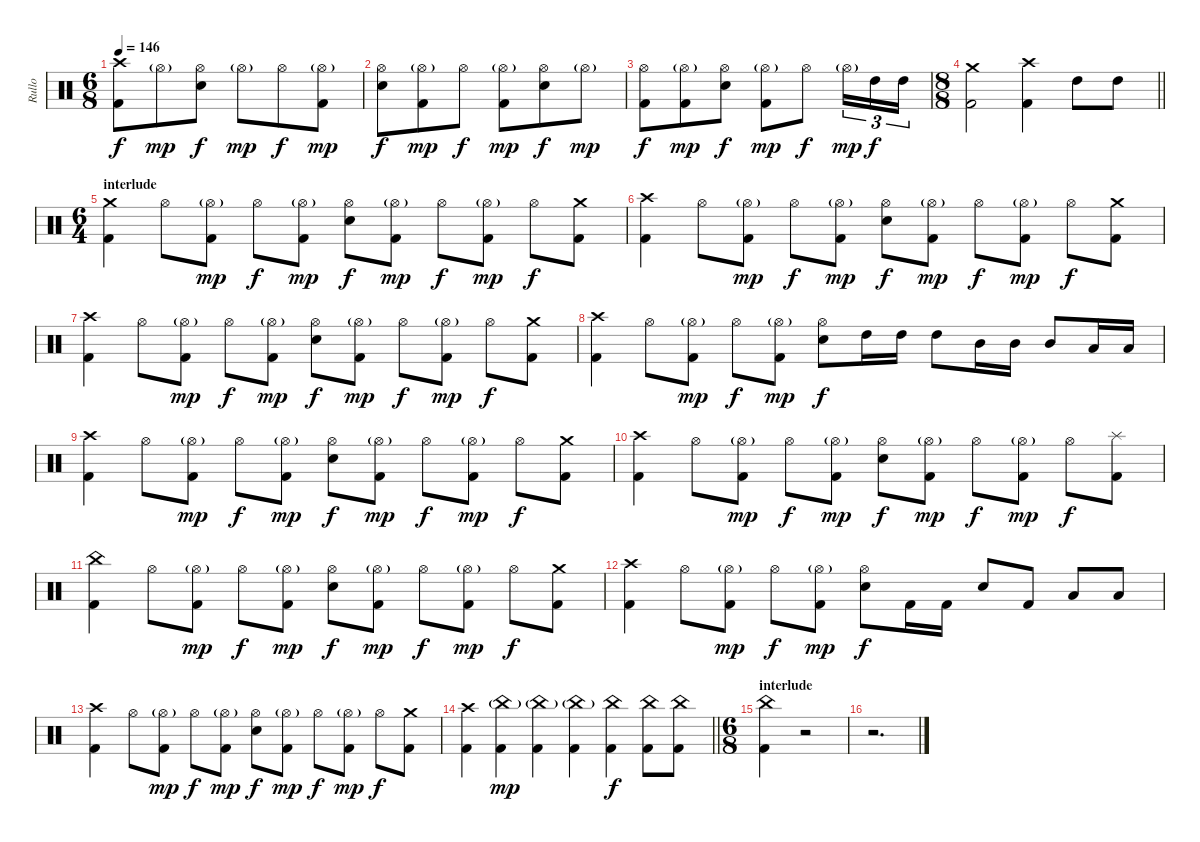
\track ("Rullo" "Rullo") {instrument percussion}
\staff {score}
\articulation defaults
\ts (6 8)
\tempo 146
\clef neutral
\ks c
("Crash high (hit)" "Kick (hit) 2").8{dy f} "Hi-Hat (open)"{g}.8{dy mp} ("Hi-Hat (open)" "Electric Snare (hit)").8{dy f} "Hi-Hat (open)"{g}.8{dy mp} "Hi-Hat (open)".8{dy f} ("Hi-Hat (open)"{g} "Kick (hit) 2").8{dy mp} |
("Hi-Hat (open)" "Electric Snare (hit)").8{dy f} ("Hi-Hat (open)"{g} "Kick (hit) 2").8{dy mp} "Hi-Hat (open)".8{dy f} ("Hi-Hat (open)"{g} "Kick (hit) 2").8{dy mp} ("Hi-Hat (open)" "Electric Snare (hit)").8{dy f} "Hi-Hat (open)"{g}.8{dy mp} |
("Hi-Hat (open)" "Kick (hit) 2").8{dy f} ("Hi-Hat (open)"{g} "Kick (hit) 2").8{dy mp} ("Hi-Hat (open)" "Electric Snare (hit)").8{dy f} ("Hi-Hat (open)"{g} "Kick (hit) 2").8{dy mp} "Hi-Hat (open)".8{dy f} "Hi-Hat (open)"{g}.16{tu (3 2) dy mp} "High Tom (hit)".16{tu (3 2) dy f} "High Tom (hit)".16{tu (3 2)} |
\ts (8 8)
\barLineRight lightlight
("Crash medium (hit)" "Kick (hit) 2").2 ("Crash high (hit)" "Kick (hit) 2").4 "High Tom (hit)".8 "High Tom (hit)".8 |
\ts (6 4)
\section ("" "interlude")
("Crash medium (hit)" "Kick (hit) 2").4 "Hi-Hat (open)".8 ("Hi-Hat (open)"{g} "Kick (hit) 2").8{dy mp} "Hi-Hat (open)".8{dy f} ("Hi-Hat (open)"{g} "Kick (hit) 2").8{dy mp} ("Hi-Hat (open)" "Electric Snare (hit)").8{dy f} ("Hi-Hat (open)"{g} "Kick (hit) 2").8{dy mp} "Hi-Hat (open)".8{dy f} ("Hi-Hat (open)"{g} "Kick (hit) 2").8{dy mp} "Hi-Hat (open)".8{dy f} ("Crash medium (hit)" "Kick (hit) 2").8 |
("Crash high (hit)" "Kick (hit) 2").4 "Hi-Hat (open)".8 ("Hi-Hat (open)"{g} "Kick (hit) 2").8{dy mp} "Hi-Hat (open)".8{dy f} ("Hi-Hat (open)"{g} "Kick (hit) 2").8{dy mp} ("Hi-Hat (open)" "Electric Snare (hit)").8{dy f} ("Hi-Hat (open)"{g} "Kick (hit) 2").8{dy mp} "Hi-Hat (open)".8{dy f} ("Hi-Hat (open)"{g} "Kick (hit) 2").8{dy mp} "Hi-Hat (open)".8{dy f} ("Crash medium (hit)" "Kick (hit) 2").8 |
("Crash high (hit)" "Kick (hit) 2").4 "Hi-Hat (open)".8 ("Hi-Hat (open)"{g} "Kick (hit) 2").8{dy mp} "Hi-Hat (open)".8{dy f} ("Hi-Hat (open)"{g} "Kick (hit) 2").8{dy mp} ("Hi-Hat (open)" "Electric Snare (hit)").8{dy f} ("Hi-Hat (open)"{g} "Kick (hit) 2").8{dy mp} "Hi-Hat (open)".8{dy f} ("Hi-Hat (open)"{g} "Kick (hit) 2").8{dy mp} "Hi-Hat (open)".8{dy f} ("Crash medium (hit)" "Kick (hit) 2").8 |
("Crash high (hit)" "Kick (hit) 2").4 "Hi-Hat (open)".8 ("Hi-Hat (open)"{g} "Kick (hit) 2").8{dy mp} "Hi-Hat (open)".8{dy f} ("Hi-Hat (open)"{g} "Kick (hit) 2").8{dy mp} ("Hi-Hat (open)" "Electric Snare (hit)").8{dy f} "High Tom (hit)".16 "High Tom (hit)".16 "High Tom (hit)".8 "Mid Tom (hit)".16 "Mid Tom (hit)".16 "Mid Tom (hit)".8 "Low Tom (hit)".16 "Low Tom (hit)".16 |
("Crash high (hit)" "Kick (hit) 2").4 "Hi-Hat (open)".8 ("Hi-Hat (open)"{g} "Kick (hit) 2").8{dy mp} "Hi-Hat (open)".8{dy f} ("Hi-Hat (open)"{g} "Kick (hit) 2").8{dy mp} ("Hi-Hat (open)" "Electric Snare (hit)").8{dy f} ("Hi-Hat (open)"{g} "Kick (hit) 2").8{dy mp} "Hi-Hat (open)".8{dy f} ("Hi-Hat (open)"{g} "Kick (hit) 2").8{dy mp} "Hi-Hat (open)".8{dy f} ("Crash medium (hit)" "Kick (hit) 2").8 |
("Crash high (hit)" "Kick (hit) 2").4 "Hi-Hat (open)".8 ("Hi-Hat (open)"{g} "Kick (hit) 2").8{dy mp} "Hi-Hat (open)".8{dy f} ("Hi-Hat (open)"{g} "Kick (hit) 2").8{dy mp} ("Hi-Hat (open)" "Electric Snare (hit)").8{dy f} ("Hi-Hat (open)"{g} "Kick (hit) 2").8{dy mp} "Hi-Hat (open)".8{dy f} ("Hi-Hat (open)"{g} "Kick (hit) 2").8{dy mp} "Hi-Hat (open)".8{dy f} ("Splash (hit)" "Kick (hit) 2").8 |
("China (hit)" "Kick (hit) 2").4 "Hi-Hat (open)".8 ("Hi-Hat (open)"{g} "Kick (hit) 2").8{dy mp} "Hi-Hat (open)".8{dy f} ("Hi-Hat (open)"{g} "Kick (hit) 2").8{dy mp} ("Hi-Hat (open)" "Electric Snare (hit)").8{dy f} ("Hi-Hat (open)"{g} "Kick (hit) 2").8{dy mp} "Hi-Hat (open)".8{dy f} ("Hi-Hat (open)"{g} "Kick (hit) 2").8{dy mp} "Hi-Hat (open)".8{dy f} ("Crash medium (hit)" "Kick (hit) 2").8 |
("Crash high (hit)" "Kick (hit) 2").4 "Hi-Hat (open)".8 ("Hi-Hat (open)"{g} "Kick (hit) 2").8{dy mp} "Hi-Hat (open)".8{dy f} ("Hi-Hat (open)"{g} "Kick (hit) 2").8{dy mp} ("Hi-Hat (open)" "Electric Snare (hit)").8{dy f} "Kick (hit) 2".16 "Kick (hit) 2".16 "Electric Snare (hit)".8 "Kick (hit) 2".8 "Low Tom (hit)".8 "Low Tom (hit)".8 |
("Crash high (hit)" "Kick (hit) 2").4 "Hi-Hat (open)".8 ("Hi-Hat (open)"{g} "Kick (hit) 2").8{dy mp} "Hi-Hat (open)".8{dy f} ("Hi-Hat (open)"{g} "Kick (hit) 2").8{dy mp} ("Hi-Hat (open)" "Electric Snare (hit)").8{dy f} ("Hi-Hat (open)"{g} "Kick (hit) 2").8{dy mp} "Hi-Hat (open)".8{dy f} ("Hi-Hat (open)"{g} "Kick (hit) 2").8{dy mp} "Hi-Hat (open)".8{dy f} ("Crash medium (hit)" "Kick (hit) 2").8 |
\barLineRight lightlight
("Crash high (hit)" "Kick (hit) 2").4 ("China (hit)"{g} "Kick (hit) 2").4{dy mp} ("China (hit)"{g} "Kick (hit) 2").4 ("China (hit)"{g} "Kick (hit) 2").4 ("China (hit)" "Kick (hit) 2").4{dy f} ("China (hit)" "Kick (hit) 2").8 ("China (hit)" "Kick (hit) 2").8 |
\ts (6 8)
\section ("" "interlude")
("China (hit)" "Kick (hit) 2").4{volume 0} r.2 |
r.2{d}
